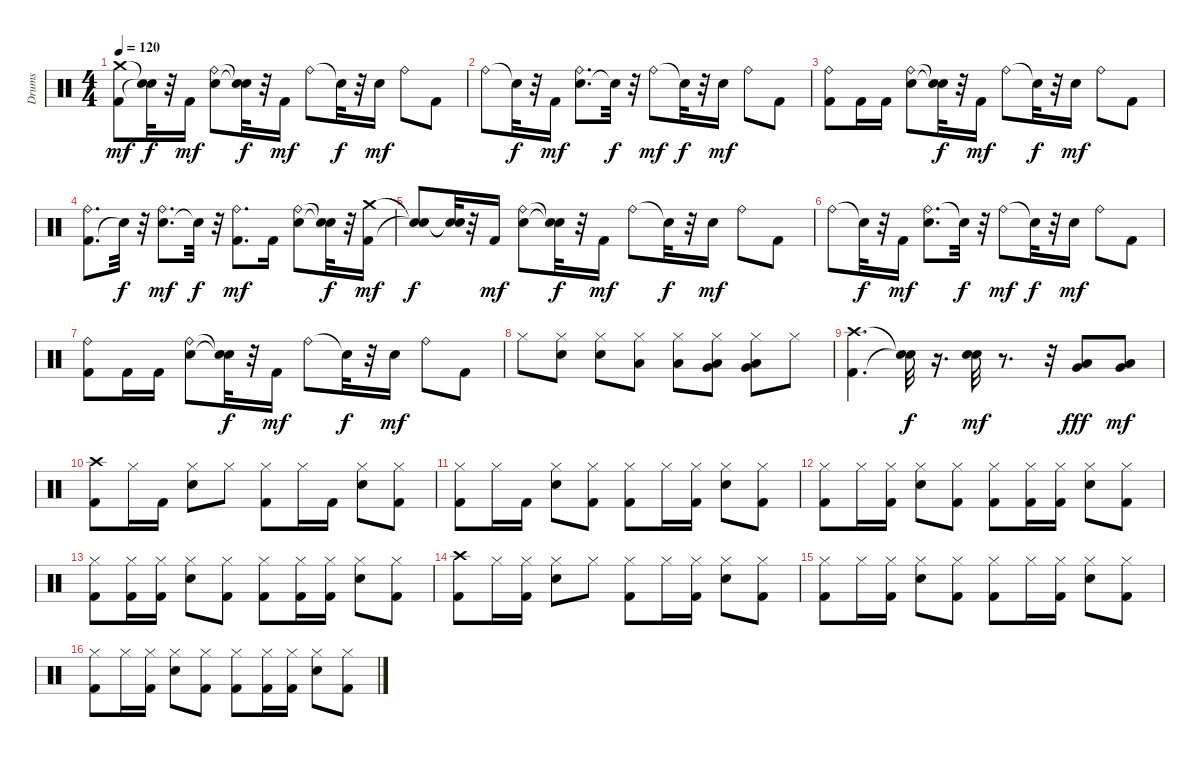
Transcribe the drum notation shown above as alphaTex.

\track ("Drums" "Drums") {instrument percussion}
\staff {score}
\articulation defaults
\ts (4 4)
\tempo 120
\clef neutral
\ks c
("Crash medium (hit)" "Kick (hit) 2").8{dy mf} ("Snare (hit)"{t} "Snare (hit)"{t}).32{dy f} r.32 "Kick (hit) 2".16{dy mf} ("Ride (bell)" "Snare (hit) 2").8 ("Snare (hit)"{t} "Snare (hit)"{t}).32{dy f} r.32 "Kick (hit) 2".16{dy mf} "Ride (bell)".8 "Snare (hit)"{t}.32{dy f} r.32 "Snare (hit) 2".16{dy mf} "Ride (bell)".8 "Kick (hit) 2".8 |
"Ride (bell)".8 "Snare (hit)"{t}.32{dy f} r.32 "Kick (hit) 2".16{dy mf} ("Snare (hit) 2" "Ride (bell)").8{d} "Snare (hit)"{t}.32{dy f} r.32 "Ride (bell)".8{dy mf} "Snare (hit)"{t}.32{dy f} r.32 "Snare (hit) 2".16{dy mf} "Ride (bell)".8 "Kick (hit) 2".8 |
("Ride (bell)" "Kick (hit) 2").8 "Kick (hit) 2".16 "Kick (hit) 2".16 ("Snare (hit) 2" "Ride (bell)").8 ("Snare (hit)"{t} "Snare (hit)"{t}).32{dy f} r.32 "Kick (hit) 2".16{dy mf} "Ride (bell)".8 "Snare (hit)"{t}.32{dy f} r.32 "Snare (hit) 2".16{dy mf} "Ride (bell)".8 "Kick (hit) 2".8 |
("Kick (hit) 2" "Ride (bell)").8{d} "Snare (hit)"{t}.32{dy f} r.32 ("Snare (hit) 2" "Ride (bell)").8{d dy mf} "Snare (hit)"{t}.32{dy f} r.32 ("Kick (hit) 2" "Ride (bell)").8{d dy mf} "Kick (hit) 2".16 ("Ride (bell)" "Snare (hit) 2").8 ("Snare (hit)"{t} "Snare (hit)"{t}).32{dy f} r.32 ("Kick (hit) 2" "Crash medium (hit)").16{dy mf} |
("Snare (hit)"{t} "Snare (hit)"{t}).8{dy f} ("Snare (hit)"{t} "Snare (hit)"{t}).32 r.32 "Kick (hit) 2".16{dy mf} ("Snare (hit) 2" "Ride (bell)").8 ("Snare (hit)"{t} "Snare (hit)"{t}).32{dy f} r.32 "Kick (hit) 2".16{dy mf} "Ride (bell)".8 "Snare (hit)"{t}.32{dy f} r.32 "Snare (hit) 2".16{dy mf} "Ride (bell)".8 "Kick (hit) 2".8 |
"Ride (bell)".8 "Snare (hit)"{t}.32{dy f} r.32 "Kick (hit) 2".16{dy mf} ("Ride (bell)" "Snare (hit) 2").8{d} "Snare (hit)"{t}.32{dy f} r.32 "Ride (bell)".8{dy mf} "Snare (hit)"{t}.32{dy f} r.32 "Snare (hit) 2".16{dy mf} "Ride (bell)".8 "Kick (hit) 2".8 |
("Ride (bell)" "Kick (hit) 2").8 "Kick (hit) 2".16 "Kick (hit) 2".16 ("Ride (bell)" "Snare (hit) 2").8 ("Snare (hit)"{t} "Snare (hit)"{t}).32{dy f} r.32 "Kick (hit) 2".16{dy mf} "Ride (bell)".8 "Snare (hit)"{t}.32{dy f} r.32 "Snare (hit) 2".16{dy mf} "Ride (bell)".8 "Kick (hit) 2".8 |
"Hi-Hat (closed)".8 ("Hi-Hat (closed)" "Snare (hit) 2").8 ("Hi-Hat (closed)" "Snare (hit) 2").8 ("Hi-Hat (closed)" "Low Tom (hit)").8 ("Hi-Hat (closed)" "Low Tom (hit)").8 ("Very Low Tom (hit)" "Hi-Hat (closed)" "Low Tom (hit)").8 ("Hi-Hat (closed)" "Very Low Tom (hit)" "Low Floor Tom (hit)").8 "Hi-Hat (closed)".8 |
("Kick (hit) 2" "Crash high (hit)").4{d} ("Snare (hit)"{t} "Snare (hit)"{t}).32{dy f} r.16{d} ("Snare (hit) 2" "Snare (hit) 2").32{dy mf} r.8{d} r.32 ("Very Low Tom (hit)" "Low Tom (hit)").8{dy fff} ("Very Low Tom (hit)" "Low Floor Tom (hit)").8{dy mf} |
("Crash high (hit)" "Kick (hit) 2").8 "Hi-Hat (closed)".16 "Kick (hit) 2".16 ("Hi-Hat (closed)" "Snare (hit) 2").8 "Hi-Hat (closed)".8 ("Kick (hit) 2" "Hi-Hat (closed)").8 "Hi-Hat (closed)".16 "Kick (hit) 2".16 ("Hi-Hat (closed)" "Snare (hit) 2").8 ("Kick (hit) 2" "Hi-Hat (closed)").8 |
("Hi-Hat (closed)" "Kick (hit) 2").8 "Hi-Hat (closed)".16 "Kick (hit) 2".16 ("Hi-Hat (closed)" "Snare (hit) 2").8 ("Kick (hit) 2" "Hi-Hat (closed)").8 ("Kick (hit) 2" "Hi-Hat (closed)").8 "Hi-Hat (closed)".16 ("Hi-Hat (closed)" "Kick (hit) 2").16 ("Hi-Hat (closed)" "Snare (hit) 2").8 ("Kick (hit) 2" "Hi-Hat (closed)").8 |
("Kick (hit) 2" "Hi-Hat (closed)").8 "Hi-Hat (closed)".16 ("Kick (hit) 2" "Hi-Hat (closed)").16 ("Hi-Hat (closed)" "Snare (hit) 2").8 ("Kick (hit) 2" "Hi-Hat (closed)").8 ("Kick (hit) 2" "Hi-Hat (closed)").8 ("Hi-Hat (closed)" "Kick (hit) 2").16 ("Kick (hit) 2" "Hi-Hat (closed)").16 ("Hi-Hat (closed)" "Snare (hit) 2").8 ("Hi-Hat (closed)" "Kick (hit) 2").8 |
("Hi-Hat (closed)" "Kick (hit) 2").8 ("Kick (hit) 2" "Hi-Hat (closed)").16 ("Hi-Hat (closed)" "Kick (hit) 2").16 ("Hi-Hat (closed)" "Snare (hit) 2").8 ("Kick (hit) 2" "Hi-Hat (closed)").8 ("Hi-Hat (closed)" "Kick (hit) 2").8 ("Kick (hit) 2" "Hi-Hat (closed)").16 ("Kick (hit) 2" "Hi-Hat (closed)").16 ("Hi-Hat (closed)" "Snare (hit) 2").8 ("Hi-Hat (closed)" "Kick (hit) 2").8 |
("Kick (hit) 2" "Crash high (hit)").8 "Hi-Hat (closed)".16 ("Kick (hit) 2" "Hi-Hat (closed)").16 ("Snare (hit) 2" "Hi-Hat (closed)").8 "Hi-Hat (closed)".8 ("Hi-Hat (closed)" "Kick (hit) 2").8 "Hi-Hat (closed)".16 ("Hi-Hat (closed)" "Kick (hit) 2").16 ("Snare (hit) 2" "Hi-Hat (closed)").8 ("Hi-Hat (closed)" "Kick (hit) 2").8 |
("Hi-Hat (closed)" "Kick (hit) 2").8 "Hi-Hat (closed)".16 ("Kick (hit) 2" "Hi-Hat (closed)").16 ("Snare (hit) 2" "Hi-Hat (closed)").8 ("Kick (hit) 2" "Hi-Hat (closed)").8 ("Kick (hit) 2" "Hi-Hat (closed)").8 "Hi-Hat (closed)".16 ("Hi-Hat (closed)" "Kick (hit) 2").16 ("Hi-Hat (closed)" "Snare (hit) 2").8 ("Kick (hit) 2" "Hi-Hat (closed)").8 |
("Kick (hit) 2" "Hi-Hat (closed)").8 "Hi-Hat (closed)".16 ("Hi-Hat (closed)" "Kick (hit) 2").16 ("Hi-Hat (closed)" "Snare (hit) 2").8 ("Hi-Hat (closed)" "Kick (hit) 2").8 ("Kick (hit) 2" "Hi-Hat (closed)").8 ("Hi-Hat (closed)" "Kick (hit) 2").16 ("Kick (hit) 2" "Hi-Hat (closed)").16 ("Snare (hit) 2" "Hi-Hat (closed)").8 ("Hi-Hat (closed)" "Kick (hit) 2").8
